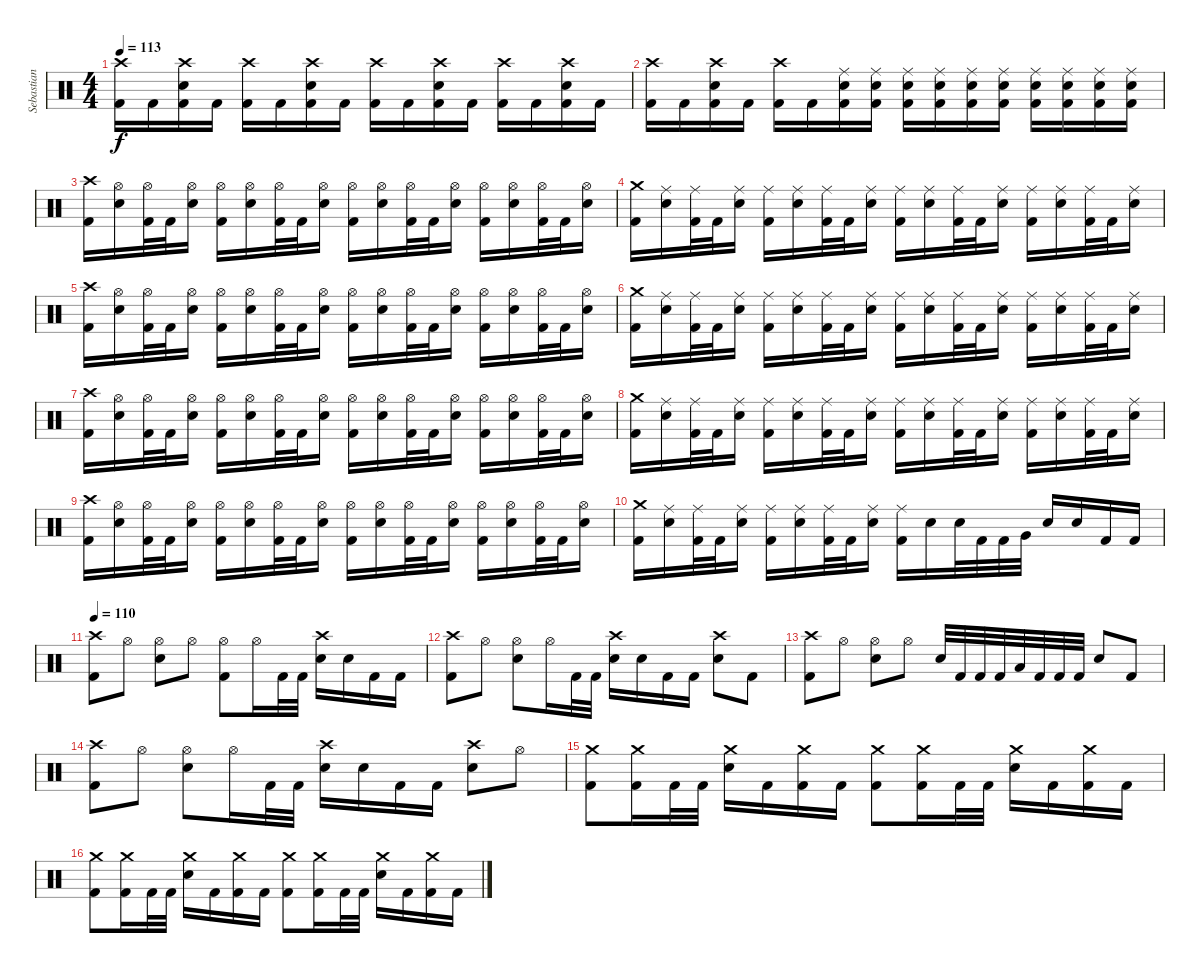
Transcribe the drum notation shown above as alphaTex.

\track ("Sebastian H." "Sebastian ") {instrument percussion}
\staff {score}
\articulation defaults
\ts (4 4)
\tempo 113
\clef neutral
\ks c
("Crash high (hit)" "Kick (hit) 2").16{dy f} "Kick (hit) 2".16 ("Crash high (hit)" "Electric Snare (hit)" "Kick (hit) 2").16 "Kick (hit) 2".16 ("Crash high (hit)" "Kick (hit) 2").16 "Kick (hit) 2".16 ("Crash high (hit)" "Electric Snare (hit)" "Kick (hit) 2").16 "Kick (hit) 2".16 ("Crash high (hit)" "Kick (hit) 2").16 "Kick (hit) 2".16 ("Crash high (hit)" "Electric Snare (hit)" "Kick (hit) 2").16 "Kick (hit) 2".16 ("Crash high (hit)" "Kick (hit) 2").16 "Kick (hit) 2".16 ("Crash high (hit)" "Electric Snare (hit)" "Kick (hit) 2").16 "Kick (hit) 2".16 |
("Crash high (hit)" "Kick (hit) 2").16 "Kick (hit) 2".16 ("Crash high (hit)" "Electric Snare (hit)" "Kick (hit) 2").16 "Kick (hit) 2".16 ("Crash high (hit)" "Kick (hit) 2").16 "Kick (hit) 2".16 ("Ride (middle)" "Electric Snare (hit)" "Kick (hit) 2").16 ("Ride (middle)" "Electric Snare (hit)" "Kick (hit) 2").16 ("Ride (middle)" "Electric Snare (hit)" "Kick (hit) 2").16 ("Ride (middle)" "Electric Snare (hit)" "Kick (hit) 2").16 ("Ride (middle)" "Electric Snare (hit)" "Kick (hit) 2").16 ("Ride (middle)" "Electric Snare (hit)" "Kick (hit) 2").16 ("Ride (middle)" "Electric Snare (hit)" "Kick (hit) 2").16 ("Ride (middle)" "Electric Snare (hit)" "Kick (hit) 2").16 ("Ride (middle)" "Electric Snare (hit)" "Kick (hit) 2").16 ("Ride (middle)" "Electric Snare (hit)" "Kick (hit) 2").16 |
("Crash high (hit)" "Kick (hit) 2").16 ("Hi-Hat (open)" "Electric Snare (hit)").16 ("Hi-Hat (open)" "Kick (hit) 2").32 "Kick (hit) 2".32 ("Hi-Hat (open)" "Electric Snare (hit)").16 ("Hi-Hat (open)" "Kick (hit) 2").16 ("Hi-Hat (open)" "Electric Snare (hit)").16 ("Hi-Hat (open)" "Kick (hit) 2").32 "Kick (hit) 2".32 ("Hi-Hat (open)" "Electric Snare (hit)").16 ("Hi-Hat (open)" "Kick (hit) 2").16 ("Hi-Hat (open)" "Electric Snare (hit)").16 ("Hi-Hat (open)" "Kick (hit) 2").32 "Kick (hit) 2".32 ("Hi-Hat (open)" "Electric Snare (hit)").16 ("Hi-Hat (open)" "Kick (hit) 2").16 ("Hi-Hat (open)" "Electric Snare (hit)").16 ("Hi-Hat (open)" "Kick (hit) 2").32 "Kick (hit) 2".32 ("Hi-Hat (open)" "Electric Snare (hit)").16 |
("Crash medium (hit)" "Kick (hit) 2").16 ("Ride (middle)" "Electric Snare (hit)").16 ("Ride (middle)" "Kick (hit) 2").32 "Kick (hit) 2".32 ("Ride (middle)" "Electric Snare (hit)").16 ("Ride (middle)" "Kick (hit) 2").16 ("Ride (middle)" "Electric Snare (hit)").16 ("Ride (middle)" "Kick (hit) 2").32 "Kick (hit) 2".32 ("Ride (middle)" "Electric Snare (hit)").16 ("Ride (middle)" "Kick (hit) 2").16 ("Ride (middle)" "Electric Snare (hit)").16 ("Ride (middle)" "Kick (hit) 2").32 "Kick (hit) 2".32 ("Ride (middle)" "Electric Snare (hit)").16 ("Ride (middle)" "Kick (hit) 2").16 ("Ride (middle)" "Electric Snare (hit)").16 ("Ride (middle)" "Kick (hit) 2").32 "Kick (hit) 2".32 ("Ride (middle)" "Electric Snare (hit)").16 |
("Crash high (hit)" "Kick (hit) 2").16 ("Hi-Hat (open)" "Electric Snare (hit)").16 ("Hi-Hat (open)" "Kick (hit) 2").32 "Kick (hit) 2".32 ("Hi-Hat (open)" "Electric Snare (hit)").16 ("Hi-Hat (open)" "Kick (hit) 2").16 ("Hi-Hat (open)" "Electric Snare (hit)").16 ("Hi-Hat (open)" "Kick (hit) 2").32 "Kick (hit) 2".32 ("Hi-Hat (open)" "Electric Snare (hit)").16 ("Hi-Hat (open)" "Kick (hit) 2").16 ("Hi-Hat (open)" "Electric Snare (hit)").16 ("Hi-Hat (open)" "Kick (hit) 2").32 "Kick (hit) 2".32 ("Hi-Hat (open)" "Electric Snare (hit)").16 ("Hi-Hat (open)" "Kick (hit) 2").16 ("Hi-Hat (open)" "Electric Snare (hit)").16 ("Hi-Hat (open)" "Kick (hit) 2").32 "Kick (hit) 2".32 ("Hi-Hat (open)" "Electric Snare (hit)").16 |
("Crash medium (hit)" "Kick (hit) 2").16 ("Ride (middle)" "Electric Snare (hit)").16 ("Ride (middle)" "Kick (hit) 2").32 "Kick (hit) 2".32 ("Ride (middle)" "Electric Snare (hit)").16 ("Ride (middle)" "Kick (hit) 2").16 ("Ride (middle)" "Electric Snare (hit)").16 ("Ride (middle)" "Kick (hit) 2").32 "Kick (hit) 2".32 ("Ride (middle)" "Electric Snare (hit)").16 ("Ride (middle)" "Kick (hit) 2").16 ("Ride (middle)" "Electric Snare (hit)").16 ("Ride (middle)" "Kick (hit) 2").32 "Kick (hit) 2".32 ("Ride (middle)" "Electric Snare (hit)").16 ("Ride (middle)" "Kick (hit) 2").16 ("Ride (middle)" "Electric Snare (hit)").16 ("Ride (middle)" "Kick (hit) 2").32 "Kick (hit) 2".32 ("Ride (middle)" "Electric Snare (hit)").16 |
("Crash high (hit)" "Kick (hit) 2").16 ("Hi-Hat (open)" "Electric Snare (hit)").16 ("Hi-Hat (open)" "Kick (hit) 2").32 "Kick (hit) 2".32 ("Hi-Hat (open)" "Electric Snare (hit)").16 ("Hi-Hat (open)" "Kick (hit) 2").16 ("Hi-Hat (open)" "Electric Snare (hit)").16 ("Hi-Hat (open)" "Kick (hit) 2").32 "Kick (hit) 2".32 ("Hi-Hat (open)" "Electric Snare (hit)").16 ("Hi-Hat (open)" "Kick (hit) 2").16 ("Hi-Hat (open)" "Electric Snare (hit)").16 ("Hi-Hat (open)" "Kick (hit) 2").32 "Kick (hit) 2".32 ("Hi-Hat (open)" "Electric Snare (hit)").16 ("Hi-Hat (open)" "Kick (hit) 2").16 ("Hi-Hat (open)" "Electric Snare (hit)").16 ("Hi-Hat (open)" "Kick (hit) 2").32 "Kick (hit) 2".32 ("Hi-Hat (open)" "Electric Snare (hit)").16 |
("Crash medium (hit)" "Kick (hit) 2").16 ("Ride (middle)" "Electric Snare (hit)").16 ("Ride (middle)" "Kick (hit) 2").32 "Kick (hit) 2".32 ("Ride (middle)" "Electric Snare (hit)").16 ("Ride (middle)" "Kick (hit) 2").16 ("Ride (middle)" "Electric Snare (hit)").16 ("Ride (middle)" "Kick (hit) 2").32 "Kick (hit) 2".32 ("Ride (middle)" "Electric Snare (hit)").16 ("Ride (middle)" "Kick (hit) 2").16 ("Ride (middle)" "Electric Snare (hit)").16 ("Ride (middle)" "Kick (hit) 2").32 "Kick (hit) 2".32 ("Ride (middle)" "Electric Snare (hit)").16 ("Ride (middle)" "Kick (hit) 2").16 ("Ride (middle)" "Electric Snare (hit)").16 ("Ride (middle)" "Kick (hit) 2").32 "Kick (hit) 2".32 ("Ride (middle)" "Electric Snare (hit)").16 |
("Crash high (hit)" "Kick (hit) 2").16 ("Hi-Hat (open)" "Electric Snare (hit)").16 ("Hi-Hat (open)" "Kick (hit) 2").32 "Kick (hit) 2".32 ("Hi-Hat (open)" "Electric Snare (hit)").16 ("Hi-Hat (open)" "Kick (hit) 2").16 ("Hi-Hat (open)" "Electric Snare (hit)").16 ("Hi-Hat (open)" "Kick (hit) 2").32 "Kick (hit) 2".32 ("Hi-Hat (open)" "Electric Snare (hit)").16 ("Hi-Hat (open)" "Kick (hit) 2").16 ("Hi-Hat (open)" "Electric Snare (hit)").16 ("Hi-Hat (open)" "Kick (hit) 2").32 "Kick (hit) 2".32 ("Hi-Hat (open)" "Electric Snare (hit)").16 ("Hi-Hat (open)" "Kick (hit) 2").16 ("Hi-Hat (open)" "Electric Snare (hit)").16 ("Hi-Hat (open)" "Kick (hit) 2").32 "Kick (hit) 2".32 ("Hi-Hat (open)" "Electric Snare (hit)").16 |
("Crash medium (hit)" "Kick (hit) 2").16 ("Ride (middle)" "Electric Snare (hit)").16 ("Ride (middle)" "Kick (hit) 2").32 "Kick (hit) 2".32 ("Ride (middle)" "Electric Snare (hit)").16 ("Ride (middle)" "Kick (hit) 2").16 ("Ride (middle)" "Electric Snare (hit)").16 ("Ride (middle)" "Kick (hit) 2").32 "Kick (hit) 2".32 ("Ride (middle)" "Electric Snare (hit)").16 ("Ride (middle)" "Kick (hit) 2").16 "Electric Snare (hit)".16 "Electric Snare (hit)".32 "Kick (hit) 2".32 "Kick (hit) 2".32 "Very Low Tom (hit)".32 "Electric Snare (hit)".16 "Electric Snare (hit)".16 "Kick (hit) 2".16 "Kick (hit) 2".16 |
\tempo 110
("Crash high (hit)" "Kick (hit) 2").8 "Hi-Hat (open)".8 ("Electric Snare (hit)" "Hi-Hat (open)").8 "Hi-Hat (open)".8 ("Kick (hit) 2" "Hi-Hat (open)").8 "Hi-Hat (open)".16 "Kick (hit) 2".32 "Kick (hit) 2".32 ("Crash high (hit)" "Electric Snare (hit)").16 "Electric Snare (hit)".16 "Kick (hit) 2".16 "Kick (hit) 2".16 |
("Crash high (hit)" "Kick (hit) 2").8 "Hi-Hat (open)".8 ("Electric Snare (hit)" "Hi-Hat (open)").8 "Hi-Hat (open)".16 "Kick (hit) 2".32 "Kick (hit) 2".32 ("Crash high (hit)" "Electric Snare (hit)").16 "Electric Snare (hit)".16 "Kick (hit) 2".16 "Kick (hit) 2".16 ("Crash high (hit)" "Electric Snare (hit)").8 "Kick (hit) 2".8 |
("Crash high (hit)" "Kick (hit) 2").8 "Hi-Hat (open)".8 ("Electric Snare (hit)" "Hi-Hat (open)").8 "Hi-Hat (open)".8 "Electric Snare (hit)".32 "Kick (hit) 2".32 "Kick (hit) 2".32 "Kick (hit) 2".32 "Low Tom (hit)".32 "Kick (hit) 2".32 "Kick (hit) 2".32 "Kick (hit) 2".32 "Electric Snare (hit)".8 "Kick (hit) 2".8 |
("Crash high (hit)" "Kick (hit) 2").8 "Hi-Hat (open)".8 ("Electric Snare (hit)" "Hi-Hat (open)").8 "Hi-Hat (open)".16 "Kick (hit) 2".32 "Kick (hit) 2".32 ("Crash high (hit)" "Electric Snare (hit)").16 "Electric Snare (hit)".16 "Kick (hit) 2".16 "Kick (hit) 2".16 ("Crash high (hit)" "Electric Snare (hit)").8 "Hi-Hat (open)".8 |
("Crash medium (hit)" "Kick (hit) 2").8 ("Crash medium (hit)" "Kick (hit) 2").16 "Kick (hit) 2".32 "Kick (hit) 2".32 ("Crash medium (hit)" "Electric Snare (hit)").16 "Kick (hit) 2".16 ("Crash medium (hit)" "Kick (hit) 2").16 "Kick (hit) 2".16 ("Crash medium (hit)" "Kick (hit) 2").8 ("Crash medium (hit)" "Kick (hit) 2").16 "Kick (hit) 2".32 "Kick (hit) 2".32 ("Crash medium (hit)" "Electric Snare (hit)").16 "Kick (hit) 2".16 ("Crash medium (hit)" "Kick (hit) 2").16 "Kick (hit) 2".16 |
("Crash medium (hit)" "Kick (hit) 2").8 ("Crash medium (hit)" "Kick (hit) 2").16 "Kick (hit) 2".32 "Kick (hit) 2".32 ("Crash medium (hit)" "Electric Snare (hit)").16 "Kick (hit) 2".16 ("Crash medium (hit)" "Kick (hit) 2").16 "Kick (hit) 2".16 ("Crash medium (hit)" "Kick (hit) 2").8 ("Crash medium (hit)" "Kick (hit) 2").16 "Kick (hit) 2".32 "Kick (hit) 2".32 ("Crash medium (hit)" "Electric Snare (hit)").16 "Kick (hit) 2".16 ("Crash medium (hit)" "Kick (hit) 2").16 "Kick (hit) 2".16
